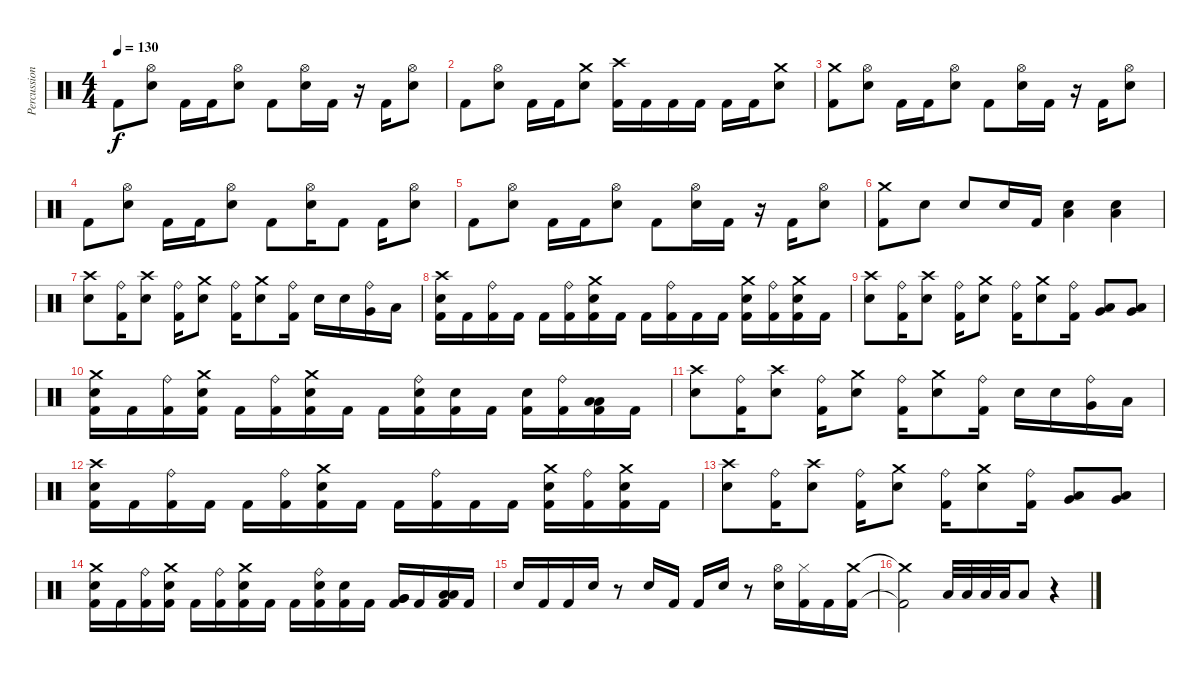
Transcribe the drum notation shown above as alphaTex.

\track ("Percussion" "Percussion") {instrument percussion}
\staff {score}
\articulation defaults
\ts (4 4)
\tempo 130
\clef neutral
\ks c "Kick (hit) 2".8{dy f}
("Hi-Hat (open)" "Electric Snare (hit)").8 "Kick (hit) 2".16 "Kick (hit) 2".16 ("Hi-Hat (open)" "Electric Snare (hit)").8 "Kick (hit) 2".8 ("Hi-Hat (open)" "Electric Snare (hit)").16 "Kick (hit) 2".16 r.16 "Kick (hit) 2".16 ("Hi-Hat (open)" "Electric Snare (hit)").8 |
"Kick (hit) 2".8 ("Hi-Hat (open)" "Electric Snare (hit)").8 "Kick (hit) 2".16 "Kick (hit) 2".16 ("Crash medium (hit)" "Electric Snare (hit)").8 ("Crash high (hit)" "Kick (hit) 2").16 "Kick (hit) 2".16 "Kick (hit) 2".16 "Kick (hit) 2".16 "Kick (hit) 2".16 "Kick (hit) 2".16 ("Crash medium (hit)" "Electric Snare (hit)").8 |
("Crash medium (hit)" "Kick (hit) 2").8 ("Hi-Hat (open)" "Electric Snare (hit)").8 "Kick (hit) 2".16 "Kick (hit) 2".16 ("Hi-Hat (open)" "Electric Snare (hit)").8 "Kick (hit) 2".8 ("Hi-Hat (open)" "Electric Snare (hit)").16 "Kick (hit) 2".16 r.16 "Kick (hit) 2".16 ("Hi-Hat (open)" "Electric Snare (hit)").8 |
"Kick (hit) 2".8 ("Hi-Hat (open)" "Electric Snare (hit)").8 "Kick (hit) 2".16 "Kick (hit) 2".16 ("Hi-Hat (open)" "Electric Snare (hit)").8 "Kick (hit) 2".8 ("Hi-Hat (open)" "Electric Snare (hit)").16 "Kick (hit) 2".8 "Kick (hit) 2".16 ("Hi-Hat (open)" "Electric Snare (hit)").8 |
"Kick (hit) 2".8 ("Hi-Hat (open)" "Electric Snare (hit)").8 "Kick (hit) 2".16 "Kick (hit) 2".16 ("Hi-Hat (open)" "Electric Snare (hit)").8 "Kick (hit) 2".8 ("Hi-Hat (open)" "Electric Snare (hit)").16 "Kick (hit) 2".16 r.16 "Kick (hit) 2".16 ("Hi-Hat (open)" "Electric Snare (hit)").8 |
("Crash medium (hit)" "Kick (hit) 2").8 "Electric Snare (hit)".8 "Electric Snare (hit)".8 "Electric Snare (hit)".16 "Kick (hit) 2".16 ("Low Floor Tom (hit)" "Electric Snare (hit)").4 ("Low Floor Tom (hit)" "Electric Snare (hit)").4 |
("Crash high (hit)" "Electric Snare (hit)").8 ("Ride (bell)" "Kick (hit) 2").16 ("Crash high (hit)" "Electric Snare (hit)").8 ("Ride (bell)" "Kick (hit) 2").16 ("Crash medium (hit)" "Electric Snare (hit)").8 ("Ride (bell)" "Kick (hit) 2").16 ("Crash medium (hit)" "Electric Snare (hit)").8 ("Ride (bell)" "Kick (hit) 2").16 "Electric Snare (hit)".16 "Electric Snare (hit)".16 ("Ride (bell)" "Very Low Tom (hit)").16 "Low Floor Tom (hit)".16 |
("Crash high (hit)" "Electric Snare (hit)" "Kick (hit) 2").16 "Kick (hit) 2".16 ("Ride (bell)" "Kick (hit) 2").16 "Kick (hit) 2".16 "Kick (hit) 2".16 ("Ride (bell)" "Kick (hit) 2").16 ("Crash medium (hit)" "Electric Snare (hit)" "Kick (hit) 2").16 "Kick (hit) 2".16 "Kick (hit) 2".16 ("Ride (bell)" "Kick (hit) 2").16 "Kick (hit) 2".16 "Kick (hit) 2".16 ("Crash medium (hit)" "Electric Snare (hit)" "Kick (hit) 2").16 ("Ride (bell)" "Kick (hit) 2").16 ("Crash medium (hit)" "Electric Snare (hit)" "Kick (hit) 2").16 "Kick (hit) 2".16 |
("Crash high (hit)" "Electric Snare (hit)").8 ("Ride (bell)" "Kick (hit) 2").16 ("Crash high (hit)" "Electric Snare (hit)").8 ("Ride (bell)" "Kick (hit) 2").16 ("Crash medium (hit)" "Electric Snare (hit)").8 ("Ride (bell)" "Kick (hit) 2").16 ("Crash medium (hit)" "Electric Snare (hit)").8 ("Ride (bell)" "Kick (hit) 2").16 ("Very Low Tom (hit)" "Low Floor Tom (hit)").8 ("Very Low Tom (hit)" "Low Floor Tom (hit)").8 |
("Crash medium (hit)" "Electric Snare (hit)" "Kick (hit) 2").16 "Kick (hit) 2".16 ("Ride (bell)" "Kick (hit) 2").16 ("Crash medium (hit)" "Electric Snare (hit)" "Kick (hit) 2").16 "Kick (hit) 2".16 ("Ride (bell)" "Kick (hit) 2").16 ("Crash medium (hit)" "Electric Snare (hit)" "Kick (hit) 2").16 "Kick (hit) 2".16 "Kick (hit) 2".16 ("Ride (bell)" "Electric Snare (hit)" "Kick (hit) 2").16 ("Electric Snare (hit)" "Kick (hit) 2").16 "Kick (hit) 2".16 ("Electric Snare (hit)" "Kick (hit) 2").16 ("Ride (bell)" "Kick (hit) 2").16 ("Low Floor Tom (hit)" "Low Floor Tom (hit)" "Kick (hit) 2").16 "Kick (hit) 2".16 |
("Crash high (hit)" "Electric Snare (hit)").8 ("Ride (bell)" "Kick (hit) 2").16 ("Crash high (hit)" "Electric Snare (hit)").8 ("Ride (bell)" "Kick (hit) 2").16 ("Crash medium (hit)" "Electric Snare (hit)").8 ("Ride (bell)" "Kick (hit) 2").16 ("Crash medium (hit)" "Electric Snare (hit)").8 ("Ride (bell)" "Kick (hit) 2").16 "Electric Snare (hit)".16 "Electric Snare (hit)".16 ("Ride (bell)" "Very Low Tom (hit)").16 "Low Floor Tom (hit)".16 |
("Crash high (hit)" "Electric Snare (hit)" "Kick (hit) 2").16 "Kick (hit) 2".16 ("Ride (bell)" "Kick (hit) 2").16 "Kick (hit) 2".16 "Kick (hit) 2".16 ("Ride (bell)" "Kick (hit) 2").16 ("Crash medium (hit)" "Electric Snare (hit)" "Kick (hit) 2").16 "Kick (hit) 2".16 "Kick (hit) 2".16 ("Ride (bell)" "Kick (hit) 2").16 "Kick (hit) 2".16 "Kick (hit) 2".16 ("Crash medium (hit)" "Electric Snare (hit)" "Kick (hit) 2").16 ("Ride (bell)" "Kick (hit) 2").16 ("Crash medium (hit)" "Electric Snare (hit)" "Kick (hit) 2").16 "Kick (hit) 2".16 |
("Crash high (hit)" "Electric Snare (hit)").8 ("Ride (bell)" "Kick (hit) 2").16 ("Crash high (hit)" "Electric Snare (hit)").8 ("Ride (bell)" "Kick (hit) 2").16 ("Crash medium (hit)" "Electric Snare (hit)").8 ("Ride (bell)" "Kick (hit) 2").16 ("Crash medium (hit)" "Electric Snare (hit)").8 ("Ride (bell)" "Kick (hit) 2").16 ("Very Low Tom (hit)" "Low Floor Tom (hit)").8 ("Very Low Tom (hit)" "Low Floor Tom (hit)").8 |
("Crash medium (hit)" "Electric Snare (hit)" "Kick (hit) 2").16 "Kick (hit) 2".16 ("Ride (bell)" "Kick (hit) 2").16 ("Crash medium (hit)" "Electric Snare (hit)" "Kick (hit) 2").16 "Kick (hit) 2".16 ("Ride (bell)" "Kick (hit) 2").16 ("Crash medium (hit)" "Electric Snare (hit)" "Kick (hit) 2").16 "Kick (hit) 2".16 "Kick (hit) 2".16 ("Ride (bell)" "Electric Snare (hit)" "Kick (hit) 2").16 ("Electric Snare (hit)" "Kick (hit) 2").16 "Kick (hit) 2".16 ("Very Low Tom (hit)" "Very Low Tom (hit)" "Kick (hit) 2").16 "Kick (hit) 2".16 ("Low Floor Tom (hit)" "Low Floor Tom (hit)" "Kick (hit) 2").16 "Kick (hit) 2".16 |
"Electric Snare (hit)".16 "Kick (hit) 2".16 "Kick (hit) 2".16 "Electric Snare (hit)".16 r.8 "Electric Snare (hit)".16 "Kick (hit) 2".16 "Kick (hit) 2".16 "Electric Snare (hit)".16 r.8 ("Hi-Hat (open)" "Electric Snare (hit)").16 ("Hi-Hat (closed)" "Kick (hit) 2").16 "Kick (hit) 2".16 ("Crash medium (hit)" "Kick (hit) 2").16 |
("Crash medium (hit)"{t} "Kick (hit) 2"{t}).2 "Low Floor Tom (hit)".32 "Low Floor Tom (hit)".32 "Low Floor Tom (hit)".32 "Low Floor Tom (hit)".32 "Low Floor Tom (hit)".8 r.4
